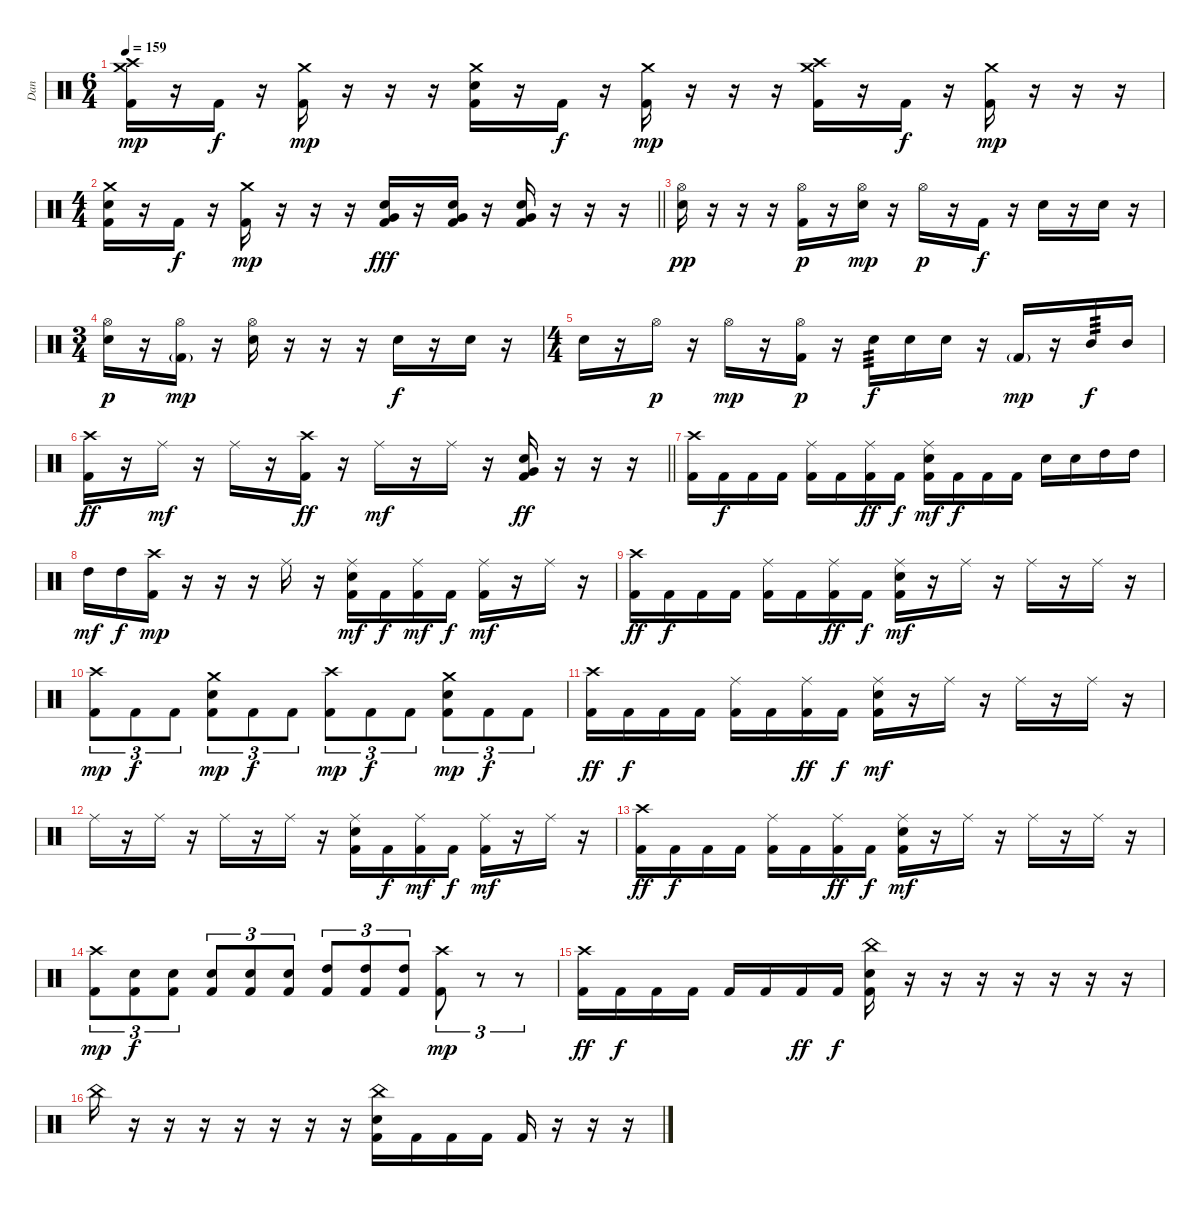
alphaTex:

\track ("Dan" "Dan") {instrument percussion}
\staff {score}
\articulation defaults
\ts (6 4)
\tempo 159
\clef neutral
\ks c
("Crash high (hit)" "Crash medium (hit)" "Kick (hit) 2").16{dy mp} r.16 "Kick (hit) 2".16{dy f} r.16 ("Crash medium (hit)" "Kick (hit) 2").16{dy mp} r.16 r.16 r.16 ("Crash medium (hit)" "Snare (hit) 2" "Kick (hit) 2").16 r.16 "Kick (hit) 2".16{dy f} r.16 ("Crash medium (hit)" "Kick (hit) 2").16{dy mp} r.16 r.16 r.16 ("Crash high (hit)" "Crash medium (hit)" "Kick (hit) 2").16 r.16 "Kick (hit) 2".16{dy f} r.16 ("Crash medium (hit)" "Kick (hit) 2").16{dy mp} r.16 r.16 r.16 |
\ts (4 4)
\barLineRight lightlight
("Crash medium (hit)" "Snare (hit) 2" "Kick (hit) 2").16 r.16 "Kick (hit) 2".16{dy f} r.16 ("Crash medium (hit)" "Kick (hit) 2").16{dy mp} r.16 r.16 r.16 ("Snare (hit) 2" "Very Low Tom (hit)" "Kick (hit) 2").16{dy fff} r.16 ("Snare (hit) 2" "Very Low Tom (hit)" "Kick (hit) 2").16 r.16 ("Snare (hit) 2" "Very Low Tom (hit)" "Kick (hit) 2").16 r.16 r.16 r.16 |
("Hi-Hat (open)" "Snare (hit) 2").16{dy pp} r.16 r.16 r.16 ("Hi-Hat (open)" "Kick (hit) 2").16{dy p} r.16 ("Hi-Hat (open)" "Snare (hit) 2").16{dy mp} r.16 "Hi-Hat (open)".16{dy p} r.16 "Kick (hit) 2".16{dy f} r.16 "Snare (hit) 2".16 r.16 "Snare (hit) 2".16 r.16 |
\ts (3 4)
("Hi-Hat (open)" "Snare (hit) 2").16{dy p} r.16 ("Hi-Hat (open)" "Kick (hit) 2"{g}).16{dy mp} r.16 ("Hi-Hat (open)" "Snare (hit) 2").16 r.16 r.16 r.16 "Snare (hit) 2".16{dy f} r.16 "Snare (hit) 2".16 r.16 |
\ts (4 4)
"Snare (hit) 2".16 r.16 "Hi-Hat (open)".16{dy p} r.16 "Hi-Hat (open)".16{dy mp} r.16 ("Hi-Hat (open)" "Kick (hit) 2").16{dy p} r.16 "Snare (hit) 2".16{tp 3 dy f} "Snare (hit) 2".16 "Snare (hit) 2".16 r.16 "Kick (hit) 2"{g}.16{dy mp} r.16 "Mid Tom (hit)".16{tp 3 dy f} "Mid Tom (hit)".16 |
\barLineRight lightlight
("Crash high (hit)" "Kick (hit) 2").16{dy ff} r.16 "Ride (middle)".16{dy mf} r.16 "Ride (middle)".16 r.16 ("Crash high (hit)" "Kick (hit) 2").16{dy ff} r.16 "Ride (middle)".16{dy mf} r.16 "Ride (middle)".16 r.16 ("Snare (hit) 2" "Very Low Tom (hit)" "Kick (hit) 2").16{dy ff} r.16 r.16 r.16 |
("Crash high (hit)" "Kick (hit) 2").16 "Kick (hit) 2".16{dy f} "Kick (hit) 2".16 "Kick (hit) 2".16 ("Ride (middle)" "Kick (hit) 2").16 "Kick (hit) 2".16 ("Ride (middle)" "Kick (hit) 2").16{dy ff} "Kick (hit) 2".16{dy f} ("Ride (middle)" "Snare (hit) 2" "Kick (hit) 2").16{dy mf} "Kick (hit) 2".16{dy f} "Kick (hit) 2".16 "Kick (hit) 2".16 "Snare (hit) 2".16 "Snare (hit) 2".16 "High Tom (hit)".16 "High Tom (hit)".16 |
"High Tom (hit)".16{dy mf} "High Tom (hit)".16{dy f} ("Crash high (hit)" "Kick (hit) 2").16{dy mp} r.16 r.16 r.16 "Ride (middle)".16 r.16 ("Ride (middle)" "Snare (hit) 2" "Kick (hit) 2").16{dy mf} "Kick (hit) 2".16{dy f} ("Ride (middle)" "Kick (hit) 2").16{dy mf} "Kick (hit) 2".16{dy f} ("Ride (middle)" "Kick (hit) 2").16{dy mf} r.16 "Ride (middle)".16 r.16 |
("Crash high (hit)" "Kick (hit) 2").16{dy ff} "Kick (hit) 2".16{dy f} "Kick (hit) 2".16 "Kick (hit) 2".16 ("Ride (middle)" "Kick (hit) 2").16 "Kick (hit) 2".16 ("Ride (middle)" "Kick (hit) 2").16{dy ff} "Kick (hit) 2".16{dy f} ("Ride (middle)" "Snare (hit) 2" "Kick (hit) 2").16{dy mf} r.16 "Ride (middle)".16 r.16 "Ride (middle)".16 r.16 "Ride (middle)".16 r.16 |
("Crash high (hit)" "Kick (hit) 2").8{tu (3 2) dy mp} "Kick (hit) 2".8{tu (3 2) dy f} "Kick (hit) 2".8{tu (3 2)} ("Crash medium (hit)" "Snare (hit) 2" "Kick (hit) 2").8{tu (3 2) dy mp} "Kick (hit) 2".8{tu (3 2) dy f} "Kick (hit) 2".8{tu (3 2)} ("Crash high (hit)" "Kick (hit) 2").8{tu (3 2) dy mp} "Kick (hit) 2".8{tu (3 2) dy f} "Kick (hit) 2".8{tu (3 2)} ("Crash medium (hit)" "Snare (hit) 2" "Kick (hit) 2").8{tu (3 2) dy mp} "Kick (hit) 2".8{tu (3 2) dy f} "Kick (hit) 2".8{tu (3 2)} |
("Crash high (hit)" "Kick (hit) 2").16{dy ff} "Kick (hit) 2".16{dy f} "Kick (hit) 2".16 "Kick (hit) 2".16 ("Ride (middle)" "Kick (hit) 2").16 "Kick (hit) 2".16 ("Ride (middle)" "Kick (hit) 2").16{dy ff} "Kick (hit) 2".16{dy f} ("Ride (middle)" "Snare (hit) 2" "Kick (hit) 2").16{dy mf} r.16 "Ride (middle)".16 r.16 "Ride (middle)".16 r.16 "Ride (middle)".16 r.16 |
"Ride (middle)".16 r.16 "Ride (middle)".16 r.16 "Ride (middle)".16 r.16 "Ride (middle)".16 r.16 ("Ride (middle)" "Snare (hit) 2" "Kick (hit) 2").16 "Kick (hit) 2".16{dy f} ("Ride (middle)" "Kick (hit) 2").16{dy mf} "Kick (hit) 2".16{dy f} ("Ride (middle)" "Kick (hit) 2").16{dy mf} r.16 "Ride (middle)".16 r.16 |
("Crash high (hit)" "Kick (hit) 2").16{dy ff} "Kick (hit) 2".16{dy f} "Kick (hit) 2".16 "Kick (hit) 2".16 ("Ride (middle)" "Kick (hit) 2").16 "Kick (hit) 2".16 ("Ride (middle)" "Kick (hit) 2").16{dy ff} "Kick (hit) 2".16{dy f} ("Ride (middle)" "Snare (hit) 2" "Kick (hit) 2").16{dy mf} r.16 "Ride (middle)".16 r.16 "Ride (middle)".16 r.16 "Ride (middle)".16 r.16 |
("Crash high (hit)" "Kick (hit) 2").8{tu (3 2) dy mp} ("Snare (hit) 2" "Kick (hit) 2").8{tu (3 2) dy f} ("Snare (hit) 2" "Kick (hit) 2").8{tu (3 2)} ("Snare (hit) 2" "Kick (hit) 2").8{tu (3 2)} ("Snare (hit) 2" "Kick (hit) 2").8{tu (3 2)} ("Snare (hit) 2" "Kick (hit) 2").8{tu (3 2)} ("High Tom (hit)" "Kick (hit) 2").8{tu (3 2)} ("High Tom (hit)" "Kick (hit) 2").8{tu (3 2)} ("High Tom (hit)" "Kick (hit) 2").8{tu (3 2)} ("Crash high (hit)" "Kick (hit) 2").8{tu (3 2) dy mp} r.8{tu (3 2)} r.8{tu (3 2)} |
("Crash high (hit)" "Kick (hit) 2").16{dy ff} "Kick (hit) 2".16{dy f} "Kick (hit) 2".16 "Kick (hit) 2".16 "Kick (hit) 2".16 "Kick (hit) 2".16 "Kick (hit) 2".16{dy ff} "Kick (hit) 2".16{dy f} ("China (hit)" "Snare (hit) 2" "Kick (hit) 2").16 r.16 r.16 r.16 r.16 r.16 r.16 r.16 |
"China (hit)".16 r.16 r.16 r.16 r.16 r.16 r.16 r.16 ("China (hit)" "Snare (hit) 2" "Kick (hit) 2").16 "Kick (hit) 2".16 "Kick (hit) 2".16 "Kick (hit) 2".16 "Kick (hit) 2".16 r.16 r.16 r.16
